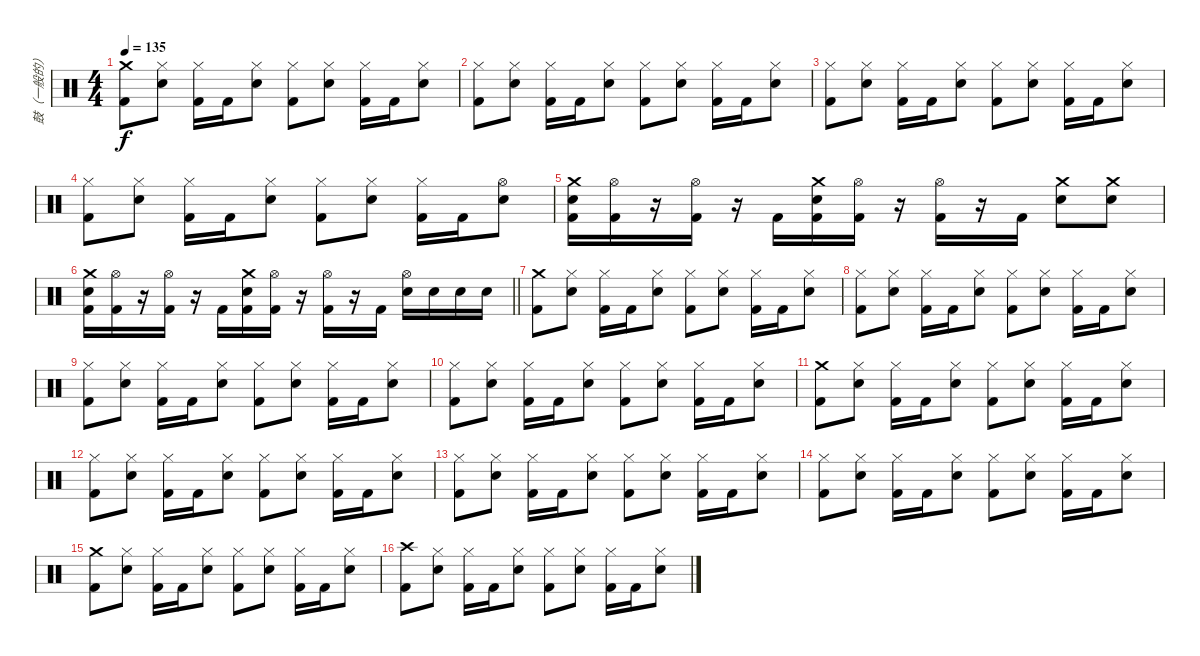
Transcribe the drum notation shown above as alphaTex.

\track ("鼓（一般的）" "鼓（一般的）") {instrument percussion}
\staff {score}
\articulation defaults
\ts (4 4)
\tempo 135
\clef neutral
\ks c
("Crash medium (hit)" "Kick (hit) 2").8{dy f} ("Hi-Hat (closed)" "Snare (hit) 2").8 ("Hi-Hat (closed)" "Kick (hit) 2").16 "Kick (hit) 2".16 ("Hi-Hat (closed)" "Snare (hit) 2").8 ("Hi-Hat (closed)" "Kick (hit) 2").8 ("Hi-Hat (closed)" "Snare (hit) 2").8 ("Hi-Hat (closed)" "Kick (hit) 2").16 "Kick (hit) 2".16 ("Hi-Hat (closed)" "Snare (hit) 2").8 |
("Hi-Hat (closed)" "Kick (hit) 2").8 ("Hi-Hat (closed)" "Snare (hit) 2").8 ("Hi-Hat (closed)" "Kick (hit) 2").16 "Kick (hit) 2".16 ("Hi-Hat (closed)" "Snare (hit) 2").8 ("Hi-Hat (closed)" "Kick (hit) 2").8 ("Hi-Hat (closed)" "Snare (hit) 2").8 ("Hi-Hat (closed)" "Kick (hit) 2").16 "Kick (hit) 2".16 ("Hi-Hat (closed)" "Snare (hit) 2").8 |
("Hi-Hat (closed)" "Kick (hit) 2").8 ("Hi-Hat (closed)" "Snare (hit) 2").8 ("Hi-Hat (closed)" "Kick (hit) 2").16 "Kick (hit) 2".16 ("Hi-Hat (closed)" "Snare (hit) 2").8 ("Hi-Hat (closed)" "Kick (hit) 2").8 ("Hi-Hat (closed)" "Snare (hit) 2").8 ("Hi-Hat (closed)" "Kick (hit) 2").16 "Kick (hit) 2".16 ("Hi-Hat (closed)" "Snare (hit) 2").8 |
("Hi-Hat (closed)" "Kick (hit) 2").8 ("Hi-Hat (closed)" "Snare (hit) 2").8 ("Hi-Hat (closed)" "Kick (hit) 2").16 "Kick (hit) 2".16 ("Hi-Hat (closed)" "Snare (hit) 2").8 ("Hi-Hat (closed)" "Kick (hit) 2").8 ("Hi-Hat (closed)" "Snare (hit) 2").8 ("Hi-Hat (closed)" "Kick (hit) 2").16 "Kick (hit) 2".16 ("Hi-Hat (open)" "Snare (hit) 2").8 |
("Crash medium (hit)" "Snare (hit) 2" "Kick (hit) 2").16 ("Hi-Hat (open)" "Kick (hit) 2").16 r.16 ("Hi-Hat (open)" "Kick (hit) 2").16 r.16 "Kick (hit) 2".16 ("Crash medium (hit)" "Snare (hit) 2" "Kick (hit) 2").16 ("Hi-Hat (open)" "Kick (hit) 2").16 r.16 ("Hi-Hat (open)" "Kick (hit) 2").16 r.16 "Kick (hit) 2".16 ("Crash medium (hit)" "Snare (hit) 2").8 ("Crash medium (hit)" "Snare (hit) 2").8 |
\barLineRight lightlight
("Crash medium (hit)" "Snare (hit) 2" "Kick (hit) 2").16 ("Hi-Hat (open)" "Kick (hit) 2").16 r.16 ("Hi-Hat (open)" "Kick (hit) 2").16 r.16 "Kick (hit) 2".16 ("Crash medium (hit)" "Snare (hit) 2" "Kick (hit) 2").16 ("Hi-Hat (open)" "Kick (hit) 2").16 r.16 ("Hi-Hat (open)" "Kick (hit) 2").16 r.16 "Kick (hit) 2".16 ("Hi-Hat (open)" "Snare (hit) 2").16 "Snare (hit) 2".16 "Snare (hit) 2".16 "Snare (hit) 2".16 |
("Crash medium (hit)" "Kick (hit) 2").8 ("Hi-Hat (closed)" "Snare (hit) 2").8 ("Hi-Hat (closed)" "Kick (hit) 2").16 "Kick (hit) 2".16 ("Hi-Hat (closed)" "Snare (hit) 2").8 ("Hi-Hat (closed)" "Kick (hit) 2").8 ("Hi-Hat (closed)" "Snare (hit) 2").8 ("Hi-Hat (closed)" "Kick (hit) 2").16 "Kick (hit) 2".16 ("Hi-Hat (closed)" "Snare (hit) 2").8 |
("Hi-Hat (closed)" "Kick (hit) 2").8 ("Hi-Hat (closed)" "Snare (hit) 2").8 ("Hi-Hat (closed)" "Kick (hit) 2").16 "Kick (hit) 2".16 ("Hi-Hat (closed)" "Snare (hit) 2").8 ("Hi-Hat (closed)" "Kick (hit) 2").8 ("Hi-Hat (closed)" "Snare (hit) 2").8 ("Hi-Hat (closed)" "Kick (hit) 2").16 "Kick (hit) 2".16 ("Hi-Hat (closed)" "Snare (hit) 2").8 |
("Hi-Hat (closed)" "Kick (hit) 2").8 ("Hi-Hat (closed)" "Snare (hit) 2").8 ("Hi-Hat (closed)" "Kick (hit) 2").16 "Kick (hit) 2".16 ("Hi-Hat (closed)" "Snare (hit) 2").8 ("Hi-Hat (closed)" "Kick (hit) 2").8 ("Hi-Hat (closed)" "Snare (hit) 2").8 ("Hi-Hat (closed)" "Kick (hit) 2").16 "Kick (hit) 2".16 ("Hi-Hat (closed)" "Snare (hit) 2").8 |
("Hi-Hat (closed)" "Kick (hit) 2").8 ("Hi-Hat (closed)" "Snare (hit) 2").8 ("Hi-Hat (closed)" "Kick (hit) 2").16 "Kick (hit) 2".16 ("Hi-Hat (closed)" "Snare (hit) 2").8 ("Hi-Hat (closed)" "Kick (hit) 2").8 ("Hi-Hat (closed)" "Snare (hit) 2").8 ("Hi-Hat (closed)" "Kick (hit) 2").16 "Kick (hit) 2".16 ("Hi-Hat (closed)" "Snare (hit) 2").8 |
("Crash medium (hit)" "Kick (hit) 2").8 ("Hi-Hat (closed)" "Snare (hit) 2").8 ("Hi-Hat (closed)" "Kick (hit) 2").16 "Kick (hit) 2".16 ("Hi-Hat (closed)" "Snare (hit) 2").8 ("Hi-Hat (closed)" "Kick (hit) 2").8 ("Hi-Hat (closed)" "Snare (hit) 2").8 ("Hi-Hat (closed)" "Kick (hit) 2").16 "Kick (hit) 2".16 ("Hi-Hat (closed)" "Snare (hit) 2").8 |
("Hi-Hat (closed)" "Kick (hit) 2").8 ("Hi-Hat (closed)" "Snare (hit) 2").8 ("Hi-Hat (closed)" "Kick (hit) 2").16 "Kick (hit) 2".16 ("Hi-Hat (closed)" "Snare (hit) 2").8 ("Hi-Hat (closed)" "Kick (hit) 2").8 ("Hi-Hat (closed)" "Snare (hit) 2").8 ("Hi-Hat (closed)" "Kick (hit) 2").16 "Kick (hit) 2".16 ("Hi-Hat (closed)" "Snare (hit) 2").8 |
("Hi-Hat (closed)" "Kick (hit) 2").8 ("Hi-Hat (closed)" "Snare (hit) 2").8 ("Hi-Hat (closed)" "Kick (hit) 2").16 "Kick (hit) 2".16 ("Hi-Hat (closed)" "Snare (hit) 2").8 ("Hi-Hat (closed)" "Kick (hit) 2").8 ("Hi-Hat (closed)" "Snare (hit) 2").8 ("Hi-Hat (closed)" "Kick (hit) 2").16 "Kick (hit) 2".16 ("Hi-Hat (closed)" "Snare (hit) 2").8 |
("Hi-Hat (closed)" "Kick (hit) 2").8 ("Hi-Hat (closed)" "Snare (hit) 2").8 ("Hi-Hat (closed)" "Kick (hit) 2").16 "Kick (hit) 2".16 ("Hi-Hat (closed)" "Snare (hit) 2").8 ("Hi-Hat (closed)" "Kick (hit) 2").8 ("Hi-Hat (closed)" "Snare (hit) 2").8 ("Hi-Hat (closed)" "Kick (hit) 2").16 "Kick (hit) 2".16 ("Hi-Hat (closed)" "Snare (hit) 2").8 |
("Crash medium (hit)" "Kick (hit) 2").8 ("Hi-Hat (closed)" "Snare (hit) 2").8 ("Hi-Hat (closed)" "Kick (hit) 2").16 "Kick (hit) 2".16 ("Hi-Hat (closed)" "Snare (hit) 2").8 ("Hi-Hat (closed)" "Kick (hit) 2").8 ("Hi-Hat (closed)" "Snare (hit) 2").8 ("Hi-Hat (closed)" "Kick (hit) 2").16 "Kick (hit) 2".16 ("Hi-Hat (closed)" "Snare (hit) 2").8 |
("Crash high (hit)" "Kick (hit) 2").8 ("Hi-Hat (closed)" "Snare (hit) 2").8 ("Hi-Hat (closed)" "Kick (hit) 2").16 "Kick (hit) 2".16 ("Hi-Hat (closed)" "Snare (hit) 2").8 ("Hi-Hat (closed)" "Kick (hit) 2").8 ("Hi-Hat (closed)" "Snare (hit) 2").8 ("Hi-Hat (closed)" "Kick (hit) 2").16 "Kick (hit) 2".16 ("Hi-Hat (closed)" "Snare (hit) 2").8
